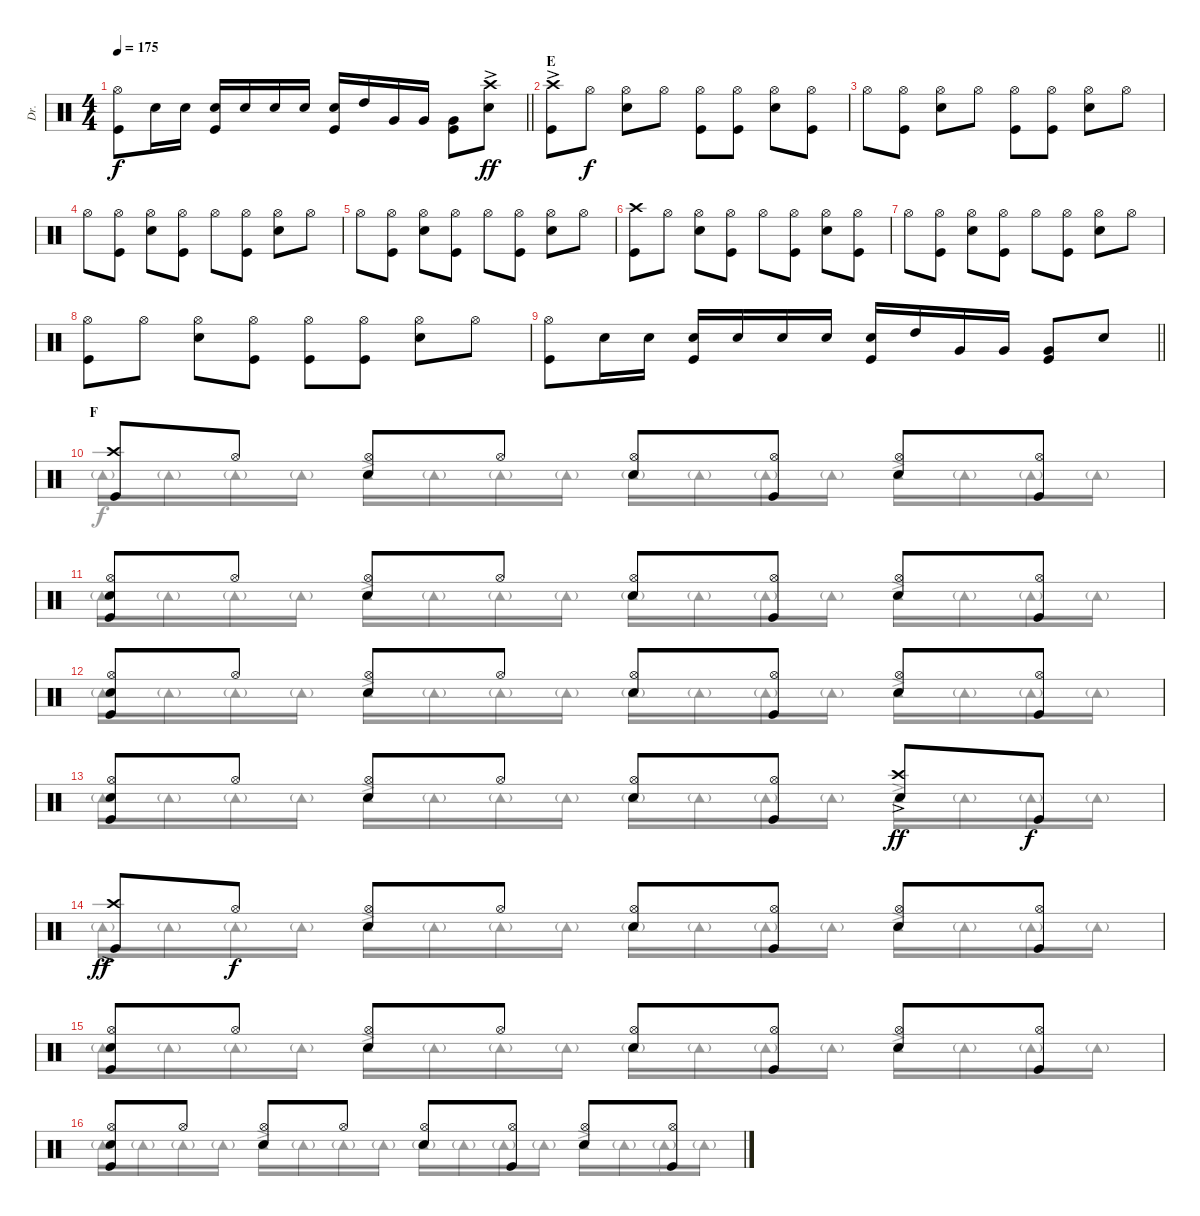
\track ("Dr." "Dr.") {instrument percussion}
\staff {score}
\articulation defaults
\voice
\ts (4 4)
\tempo 175
\clef neutral
\barLineRight lightlight
\ks c
("Hi-Hat (open)" "Kick (hit)").8{dy f} "Snare (hit) 2".16 "Snare (hit) 2".16 ("Snare (hit) 2" "Kick (hit)").16 "Snare (hit) 2".16 "Snare (hit) 2".16 "Snare (hit) 2".16 ("Snare (hit) 2" "Kick (hit)").16 "High Tom (hit)".16 "Very Low Tom (hit)".16 "Very Low Tom (hit)".16 ("Very Low Tom (hit)" "Kick (hit)").8 ("Crash high (hit)"{ac} "Snare (hit) 2"{ac}).8{dy ff} |
\section ("" "E")
("Crash high (hit)"{ac} "Kick (hit)"{ac}).8 "Hi-Hat (open)".8{dy f} ("Hi-Hat (open)" "Snare (hit) 2").8 "Hi-Hat (open)".8 ("Hi-Hat (open)" "Kick (hit)").8 ("Hi-Hat (open)" "Kick (hit)").8 ("Hi-Hat (open)" "Snare (hit) 2").8 ("Hi-Hat (open)" "Kick (hit)").8 |
"Hi-Hat (open)".8 ("Hi-Hat (open)" "Kick (hit)").8 ("Hi-Hat (open)" "Snare (hit) 2").8 "Hi-Hat (open)".8 ("Hi-Hat (open)" "Kick (hit)").8 ("Hi-Hat (open)" "Kick (hit)").8 ("Hi-Hat (open)" "Snare (hit) 2").8 "Hi-Hat (open)".8 |
"Hi-Hat (open)".8 ("Hi-Hat (open)" "Kick (hit)").8 ("Hi-Hat (open)" "Snare (hit) 2").8 ("Hi-Hat (open)" "Kick (hit)").8 "Hi-Hat (open)".8 ("Hi-Hat (open)" "Kick (hit)").8 ("Hi-Hat (open)" "Snare (hit) 2").8 "Hi-Hat (open)".8 |
"Hi-Hat (open)".8 ("Hi-Hat (open)" "Kick (hit)").8 ("Hi-Hat (open)" "Snare (hit) 2").8 ("Hi-Hat (open)" "Kick (hit)").8 "Hi-Hat (open)".8 ("Hi-Hat (open)" "Kick (hit)").8 ("Hi-Hat (open)" "Snare (hit) 2").8 "Hi-Hat (open)".8 |
("Crash high (hit)" "Kick (hit)").8 "Hi-Hat (open)".8 ("Hi-Hat (open)" "Snare (hit) 2").8 ("Hi-Hat (open)" "Kick (hit)").8 "Hi-Hat (open)".8 ("Hi-Hat (open)" "Kick (hit)").8 ("Hi-Hat (open)" "Snare (hit) 2").8 ("Hi-Hat (open)" "Kick (hit)").8 |
"Hi-Hat (open)".8 ("Hi-Hat (open)" "Kick (hit)").8 ("Hi-Hat (open)" "Snare (hit) 2").8 ("Hi-Hat (open)" "Kick (hit)").8 "Hi-Hat (open)".8 ("Hi-Hat (open)" "Kick (hit)").8 ("Hi-Hat (open)" "Snare (hit) 2").8 "Hi-Hat (open)".8 |
("Hi-Hat (open)" "Kick (hit)").8 "Hi-Hat (open)".8 ("Hi-Hat (open)" "Snare (hit) 2").8 ("Hi-Hat (open)" "Kick (hit)").8 ("Hi-Hat (open)" "Kick (hit)").8 ("Hi-Hat (open)" "Kick (hit)").8 ("Hi-Hat (open)" "Snare (hit) 2").8 "Hi-Hat (open)".8 |
\barLineRight lightlight
("Hi-Hat (open)" "Kick (hit)").8 "Snare (hit) 2".16 "Snare (hit) 2".16 ("Snare (hit) 2" "Kick (hit)").16 "Snare (hit) 2".16 "Snare (hit) 2".16 "Snare (hit) 2".16 ("Snare (hit) 2" "Kick (hit)").16 "High Tom (hit)".16 "Very Low Tom (hit)".16 "Very Low Tom (hit)".16 ("Very Low Tom (hit)" "Kick (hit)").8 "Snare (hit) 2".8 |
\section ("" "F")
("Crash high (hit)" "Kick (hit)").8 "Hi-Hat (open)".8 ("Hi-Hat (open)" "Snare (hit) 2").8 "Hi-Hat (open)".8 ("Hi-Hat (open)" "Snare (hit) 2").8 ("Hi-Hat (open)" "Kick (hit)").8 ("Hi-Hat (open)" "Snare (hit) 2").8 ("Hi-Hat (open)" "Kick (hit)").8 |
("Hi-Hat (open)" "Snare (hit) 2" "Kick (hit)").8 "Hi-Hat (open)".8 ("Hi-Hat (open)" "Snare (hit) 2").8 "Hi-Hat (open)".8 ("Hi-Hat (open)" "Snare (hit) 2").8 ("Hi-Hat (open)" "Kick (hit)").8 ("Hi-Hat (open)" "Snare (hit) 2").8 ("Hi-Hat (open)" "Kick (hit)").8 |
("Hi-Hat (open)" "Snare (hit) 2" "Kick (hit)").8 "Hi-Hat (open)".8 ("Hi-Hat (open)" "Snare (hit) 2").8 "Hi-Hat (open)".8 ("Hi-Hat (open)" "Snare (hit) 2").8 ("Hi-Hat (open)" "Kick (hit)").8 ("Hi-Hat (open)" "Snare (hit) 2").8 ("Hi-Hat (open)" "Kick (hit)").8 |
("Hi-Hat (open)" "Snare (hit) 2" "Kick (hit)").8 "Hi-Hat (open)".8 ("Hi-Hat (open)" "Snare (hit) 2").8 "Hi-Hat (open)".8 ("Hi-Hat (open)" "Snare (hit) 2").8 ("Hi-Hat (open)" "Kick (hit)").8 ("Crash high (hit)"{ac} "Snare (hit) 2"{ac}).8{dy ff} "Kick (hit)".8{dy f} |
("Crash high (hit)"{ac} "Kick (hit)"{ac}).8{dy ff} "Hi-Hat (open)".8{dy f} ("Hi-Hat (open)" "Snare (hit) 2").8 "Hi-Hat (open)".8 ("Hi-Hat (open)" "Snare (hit) 2").8 ("Hi-Hat (open)" "Kick (hit)").8 ("Hi-Hat (open)" "Snare (hit) 2").8 ("Hi-Hat (open)" "Kick (hit)").8 |
("Hi-Hat (open)" "Snare (hit) 2" "Kick (hit)").8 "Hi-Hat (open)".8 ("Hi-Hat (open)" "Snare (hit) 2").8 "Hi-Hat (open)".8 ("Hi-Hat (open)" "Snare (hit) 2").8 ("Hi-Hat (open)" "Kick (hit)").8 ("Hi-Hat (open)" "Snare (hit) 2").8 ("Hi-Hat (open)" "Kick (hit)").8 |
("Hi-Hat (open)" "Snare (hit) 2" "Kick (hit)").8 "Hi-Hat (open)".8 ("Hi-Hat (open)" "Snare (hit) 2").8 "Hi-Hat (open)".8 ("Hi-Hat (open)" "Snare (hit) 2").8 ("Hi-Hat (open)" "Kick (hit)").8 ("Hi-Hat (open)" "Snare (hit) 2").8 ("Hi-Hat (open)" "Kick (hit)").8
\voice
\clef neutral
\ottava regular
\simile none
\barLineRight lightlight
\ks c
|
|
|
|
|
|
|
|
\barLineRight lightlight
|
"Tambourine (hit)"{g}.16 "Tambourine (hit)"{g}.16 "Tambourine (hit)"{g}.16 "Tambourine (hit)"{g}.16 "Tambourine (hit)"{ac}.16 "Tambourine (hit)"{g}.16 "Tambourine (hit)"{g}.16 "Tambourine (hit)"{g}.16 "Tambourine (hit)"{g}.16 "Tambourine (hit)"{g}.16 "Tambourine (hit)"{g}.16 "Tambourine (hit)"{g}.16 "Tambourine (hit)"{ac}.16 "Tambourine (hit)"{g}.16 "Tambourine (hit)"{g}.16 "Tambourine (hit)"{g}.16 |
"Tambourine (hit)"{g}.16 "Tambourine (hit)"{g}.16 "Tambourine (hit)"{g}.16 "Tambourine (hit)"{g}.16 "Tambourine (hit)"{ac}.16 "Tambourine (hit)"{g}.16 "Tambourine (hit)"{g}.16 "Tambourine (hit)"{g}.16 "Tambourine (hit)"{g}.16 "Tambourine (hit)"{g}.16 "Tambourine (hit)"{g}.16 "Tambourine (hit)"{g}.16 "Tambourine (hit)"{ac}.16 "Tambourine (hit)"{g}.16 "Tambourine (hit)"{g}.16 "Tambourine (hit)"{g}.16 |
"Tambourine (hit)"{g}.16 "Tambourine (hit)"{g}.16 "Tambourine (hit)"{g}.16 "Tambourine (hit)"{g}.16 "Tambourine (hit)"{ac}.16 "Tambourine (hit)"{g}.16 "Tambourine (hit)"{g}.16 "Tambourine (hit)"{g}.16 "Tambourine (hit)"{g}.16 "Tambourine (hit)"{g}.16 "Tambourine (hit)"{g}.16 "Tambourine (hit)"{g}.16 "Tambourine (hit)"{ac}.16 "Tambourine (hit)"{g}.16 "Tambourine (hit)"{g}.16 "Tambourine (hit)"{g}.16 |
"Tambourine (hit)"{g}.16 "Tambourine (hit)"{g}.16 "Tambourine (hit)"{g}.16 "Tambourine (hit)"{g}.16 "Tambourine (hit)"{ac}.16 "Tambourine (hit)"{g}.16 "Tambourine (hit)"{g}.16 "Tambourine (hit)"{g}.16 "Tambourine (hit)"{g}.16 "Tambourine (hit)"{g}.16 "Tambourine (hit)"{g}.16 "Tambourine (hit)"{g}.16 "Tambourine (hit)"{ac}.16 "Tambourine (hit)"{g}.16 "Tambourine (hit)"{g}.16 "Tambourine (hit)"{g}.16 |
"Tambourine (hit)"{g}.16 "Tambourine (hit)"{g}.16 "Tambourine (hit)"{g}.16 "Tambourine (hit)"{g}.16 "Tambourine (hit)"{ac}.16 "Tambourine (hit)"{g}.16 "Tambourine (hit)"{g}.16 "Tambourine (hit)"{g}.16 "Tambourine (hit)"{g}.16 "Tambourine (hit)"{g}.16 "Tambourine (hit)"{g}.16 "Tambourine (hit)"{g}.16 "Tambourine (hit)"{ac}.16 "Tambourine (hit)"{g}.16 "Tambourine (hit)"{g}.16 "Tambourine (hit)"{g}.16 |
"Tambourine (hit)"{g}.16 "Tambourine (hit)"{g}.16 "Tambourine (hit)"{g}.16 "Tambourine (hit)"{g}.16 "Tambourine (hit)"{ac}.16 "Tambourine (hit)"{g}.16 "Tambourine (hit)"{g}.16 "Tambourine (hit)"{g}.16 "Tambourine (hit)"{g}.16 "Tambourine (hit)"{g}.16 "Tambourine (hit)"{g}.16 "Tambourine (hit)"{g}.16 "Tambourine (hit)"{ac}.16 "Tambourine (hit)"{g}.16 "Tambourine (hit)"{g}.16 "Tambourine (hit)"{g}.16 |
"Tambourine (hit)"{g}.16 "Tambourine (hit)"{g}.16 "Tambourine (hit)"{g}.16 "Tambourine (hit)"{g}.16 "Tambourine (hit)"{ac}.16 "Tambourine (hit)"{g}.16 "Tambourine (hit)"{g}.16 "Tambourine (hit)"{g}.16 "Tambourine (hit)"{g}.16 "Tambourine (hit)"{g}.16 "Tambourine (hit)"{g}.16 "Tambourine (hit)"{g}.16 "Tambourine (hit)"{ac}.16 "Tambourine (hit)"{g}.16 "Tambourine (hit)"{g}.16 "Tambourine (hit)"{g}.16
